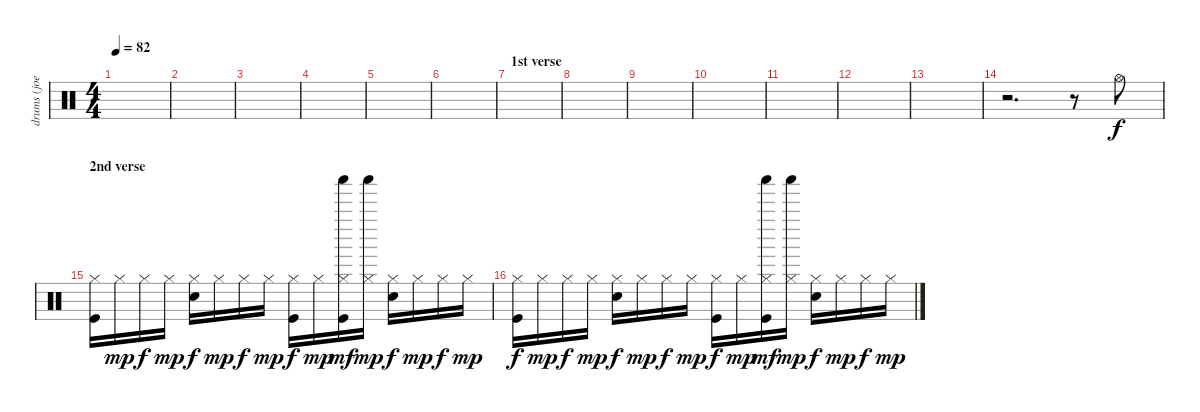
\track ("drums (joey castillo)" "drums (joe") {instrument percussion}
\staff {score}
\articulation defaults
\ts (4 4)
\tempo 82
\clef neutral
\ks c
|
|
|
|
|
|
\section ("" "1st verse")
|
|
|
|
|
|
|
r.2{d} r.8 "Hi-Hat (open)".8 |
\section ("" "2nd verse")
("Kick (hit)" "Hi-Hat (closed)").16 "Hi-Hat (closed)".16{dy mp} "Hi-Hat (closed)".16{dy f} "Hi-Hat (closed)".16{dy mp} ("Electric Snare (hit)" "Hi-Hat (closed)").16{dy f} "Hi-Hat (closed)".16{dy mp} "Hi-Hat (closed)".16{dy f} "Hi-Hat (closed)".16{dy mp} ("Kick (hit)" "Hi-Hat (closed)").16{dy f} "Hi-Hat (closed)".16{dy mp} ("Shaker (hit)" "Kick (hit)" "Hi-Hat (closed)").16{dy mf} ("Shaker (hit)" "Hi-Hat (closed)").16{dy mp} ("Electric Snare (hit)" "Hi-Hat (closed)").16{dy f} "Hi-Hat (closed)".16{dy mp} "Hi-Hat (closed)".16{dy f} "Hi-Hat (closed)".16{dy mp} |
("Kick (hit)" "Hi-Hat (closed)").16{dy f} "Hi-Hat (closed)".16{dy mp} "Hi-Hat (closed)".16{dy f} "Hi-Hat (closed)".16{dy mp} ("Electric Snare (hit)" "Hi-Hat (closed)").16{dy f} "Hi-Hat (closed)".16{dy mp} "Hi-Hat (closed)".16{dy f} "Hi-Hat (closed)".16{dy mp} ("Kick (hit)" "Hi-Hat (closed)").16{dy f} "Hi-Hat (closed)".16{dy mp} ("Shaker (hit)" "Kick (hit)" "Hi-Hat (closed)").16{dy mf} ("Shaker (hit)" "Hi-Hat (closed)").16{dy mp} ("Electric Snare (hit)" "Hi-Hat (closed)").16{dy f} "Hi-Hat (closed)".16{dy mp} "Hi-Hat (closed)".16{dy f} "Hi-Hat (closed)".16{dy mp}
